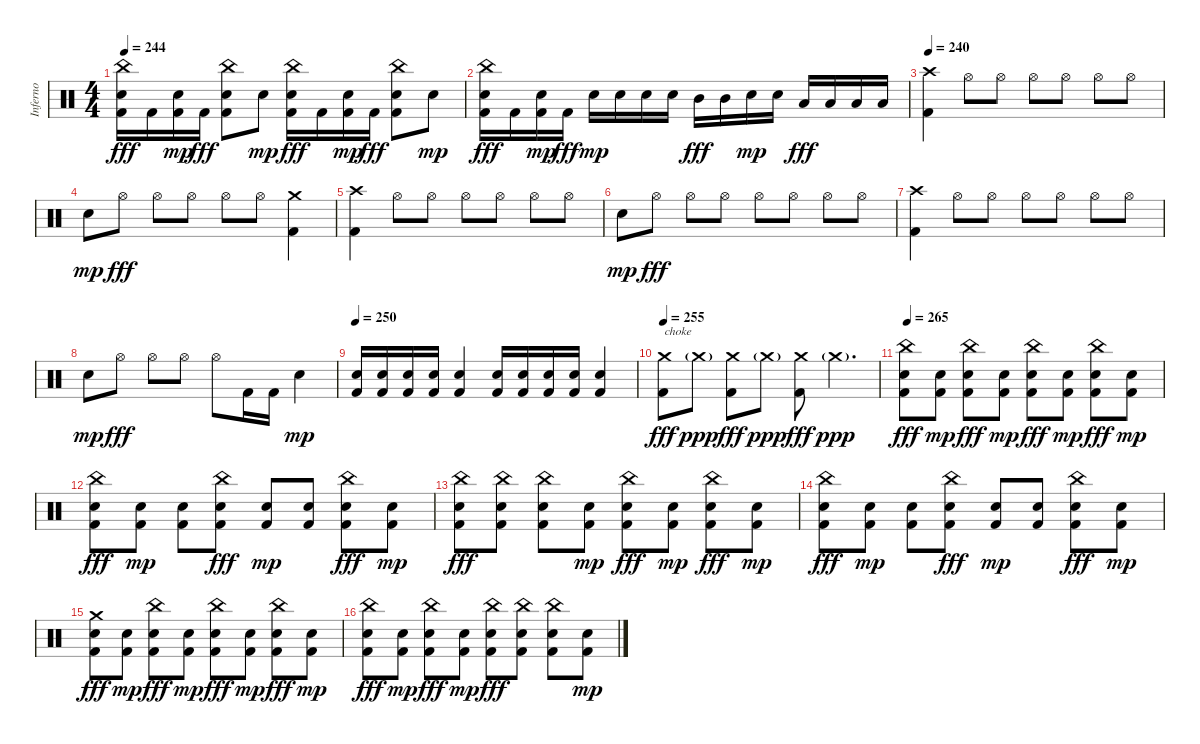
\track ("Inferno" "Inferno") {instrument percussion}
\staff {score}
\articulation defaults
\ts (4 4)
\tempo 244
\clef neutral
\ks c
("Kick (hit) 2" "Electric Snare (hit)" "China (hit)").16{dy fff} "Kick (hit) 2".16 ("Kick (hit) 2" "Electric Snare (hit)").16{dy mp} "Kick (hit) 2".16{dy fff} ("Kick (hit) 2" "Electric Snare (hit)" "China (hit)").8 "Electric Snare (hit)".8{dy mp} ("Kick (hit) 2" "Electric Snare (hit)" "China (hit)").16{dy fff} "Kick (hit) 2".16 ("Kick (hit) 2" "Electric Snare (hit)").16{dy mp} "Kick (hit) 2".16{dy fff} ("Kick (hit) 2" "Electric Snare (hit)" "China (hit)").8 "Electric Snare (hit)".8{dy mp} |
("Kick (hit) 2" "Electric Snare (hit)" "China (hit)").16{dy fff} "Kick (hit) 2".16 ("Kick (hit) 2" "Electric Snare (hit)").16{dy mp} "Kick (hit) 2".16{dy fff} "Electric Snare (hit)".16{dy mp} "Electric Snare (hit)".16 "Electric Snare (hit)".16 "Electric Snare (hit)".16 "Mid Tom (hit)".16{dy fff} "Mid Tom (hit)".16 "Electric Snare (hit)".16{dy mp} "Electric Snare (hit)".16 "Low Tom (hit)".16{dy fff} "Low Tom (hit)".16 "Low Tom (hit)".16 "Low Tom (hit)".16 |
\tempo 240
("Kick (hit) 2" "Crash high (hit)").4 "Hi-Hat (open)".8 "Hi-Hat (open)".8 "Hi-Hat (open)".8 "Hi-Hat (open)".8 "Hi-Hat (open)".8 "Hi-Hat (open)".8 |
"Electric Snare (hit)".8{dy mp} "Hi-Hat (open)".8{dy fff} "Hi-Hat (open)".8 "Hi-Hat (open)".8 "Hi-Hat (open)".8 "Hi-Hat (open)".8 ("Kick (hit) 2" "Crash medium (hit)").4 |
("Kick (hit) 2" "Crash high (hit)").4 "Hi-Hat (open)".8 "Hi-Hat (open)".8 "Hi-Hat (open)".8 "Hi-Hat (open)".8 "Hi-Hat (open)".8 "Hi-Hat (open)".8 |
"Electric Snare (hit)".8{dy mp} "Hi-Hat (open)".8{dy fff} "Hi-Hat (open)".8 "Hi-Hat (open)".8 "Hi-Hat (open)".8 "Hi-Hat (open)".8 "Hi-Hat (open)".8 "Hi-Hat (open)".8 |
("Kick (hit) 2" "Crash high (hit)").4 "Hi-Hat (open)".8 "Hi-Hat (open)".8 "Hi-Hat (open)".8 "Hi-Hat (open)".8 "Hi-Hat (open)".8 "Hi-Hat (open)".8 |
"Electric Snare (hit)".8{dy mp} "Hi-Hat (open)".8{dy fff} "Hi-Hat (open)".8 "Hi-Hat (open)".8 "Hi-Hat (open)".8 "Kick (hit) 2".16 "Kick (hit) 2".16 "Electric Snare (hit)".4{dy mp} |
\tempo 250
("Kick (hit) 2" "Electric Snare (hit)").16 ("Kick (hit) 2" "Electric Snare (hit)").16 ("Kick (hit) 2" "Electric Snare (hit)").16 ("Kick (hit) 2" "Electric Snare (hit)").16 ("Kick (hit) 2" "Electric Snare (hit)").4 ("Kick (hit) 2" "Electric Snare (hit)").16 ("Kick (hit) 2" "Electric Snare (hit)").16 ("Kick (hit) 2" "Electric Snare (hit)").16 ("Kick (hit) 2" "Electric Snare (hit)").16 ("Kick (hit) 2" "Electric Snare (hit)").4 |
\tempo 255
("Kick (hit) 2" "Crash medium (hit)").8{txt "choke" dy fff} "Crash medium (hit)"{g}.8{dy ppp} ("Kick (hit) 2" "Crash medium (hit)").8{dy fff} "Crash medium (hit)"{g}.8{dy ppp} ("Kick (hit) 2" "Crash medium (hit)").8{dy fff} "Crash medium (hit)"{g}.4{d dy ppp} |
\tempo 265
("Kick (hit) 2" "Electric Snare (hit)" "China (hit)").8{dy fff} ("Kick (hit) 2" "Electric Snare (hit)").8{dy mp} ("Kick (hit) 2" "Electric Snare (hit)" "China (hit)").8{dy fff} ("Kick (hit) 2" "Electric Snare (hit)").8{dy mp} ("Kick (hit) 2" "Electric Snare (hit)" "China (hit)").8{dy fff} ("Kick (hit) 2" "Electric Snare (hit)").8{dy mp} ("Kick (hit) 2" "Electric Snare (hit)" "China (hit)").8{dy fff} ("Kick (hit) 2" "Electric Snare (hit)").8{dy mp} |
("Kick (hit) 2" "Electric Snare (hit)" "China (hit)").8{dy fff} ("Kick (hit) 2" "Electric Snare (hit)").8{dy mp} ("Kick (hit) 2" "Electric Snare (hit)").8 ("Kick (hit) 2" "Electric Snare (hit)" "China (hit)").8{dy fff} ("Kick (hit) 2" "Electric Snare (hit)").8{dy mp} ("Kick (hit) 2" "Electric Snare (hit)").8 ("Kick (hit) 2" "Electric Snare (hit)" "China (hit)").8{dy fff} ("Kick (hit) 2" "Electric Snare (hit)").8{dy mp} |
("Kick (hit) 2" "Electric Snare (hit)" "China (hit)").8{dy fff} ("Kick (hit) 2" "Electric Snare (hit)" "China (hit)").8 ("Kick (hit) 2" "Electric Snare (hit)" "China (hit)").8 ("Kick (hit) 2" "Electric Snare (hit)").8{dy mp} ("Kick (hit) 2" "Electric Snare (hit)" "China (hit)").8{dy fff} ("Kick (hit) 2" "Electric Snare (hit)").8{dy mp} ("Kick (hit) 2" "Electric Snare (hit)" "China (hit)").8{dy fff} ("Kick (hit) 2" "Electric Snare (hit)").8{dy mp} |
("Kick (hit) 2" "Electric Snare (hit)" "China (hit)").8{dy fff} ("Kick (hit) 2" "Electric Snare (hit)").8{dy mp} ("Kick (hit) 2" "Electric Snare (hit)").8 ("Kick (hit) 2" "Electric Snare (hit)" "China (hit)").8{dy fff} ("Kick (hit) 2" "Electric Snare (hit)").8{dy mp} ("Kick (hit) 2" "Electric Snare (hit)").8 ("Kick (hit) 2" "Electric Snare (hit)" "China (hit)").8{dy fff} ("Kick (hit) 2" "Electric Snare (hit)").8{dy mp} |
("Kick (hit) 2" "Electric Snare (hit)" "Crash medium (hit)").8{dy fff} ("Kick (hit) 2" "Electric Snare (hit)").8{dy mp} ("Kick (hit) 2" "Electric Snare (hit)" "China (hit)").8{dy fff} ("Kick (hit) 2" "Electric Snare (hit)").8{dy mp} ("Kick (hit) 2" "Electric Snare (hit)" "China (hit)").8{dy fff} ("Kick (hit) 2" "Electric Snare (hit)").8{dy mp} ("Kick (hit) 2" "Electric Snare (hit)" "China (hit)").8{dy fff} ("Kick (hit) 2" "Electric Snare (hit)").8{dy mp} |
("Kick (hit) 2" "Electric Snare (hit)" "China (hit)").8{dy fff} ("Kick (hit) 2" "Electric Snare (hit)").8{dy mp} ("Kick (hit) 2" "Electric Snare (hit)" "China (hit)").8{dy fff} ("Kick (hit) 2" "Electric Snare (hit)").8{dy mp} ("Kick (hit) 2" "Electric Snare (hit)" "China (hit)").8{dy fff} ("Kick (hit) 2" "Electric Snare (hit)" "China (hit)").8 ("Kick (hit) 2" "Electric Snare (hit)" "China (hit)").8 ("Kick (hit) 2" "Electric Snare (hit)").8{dy mp}
